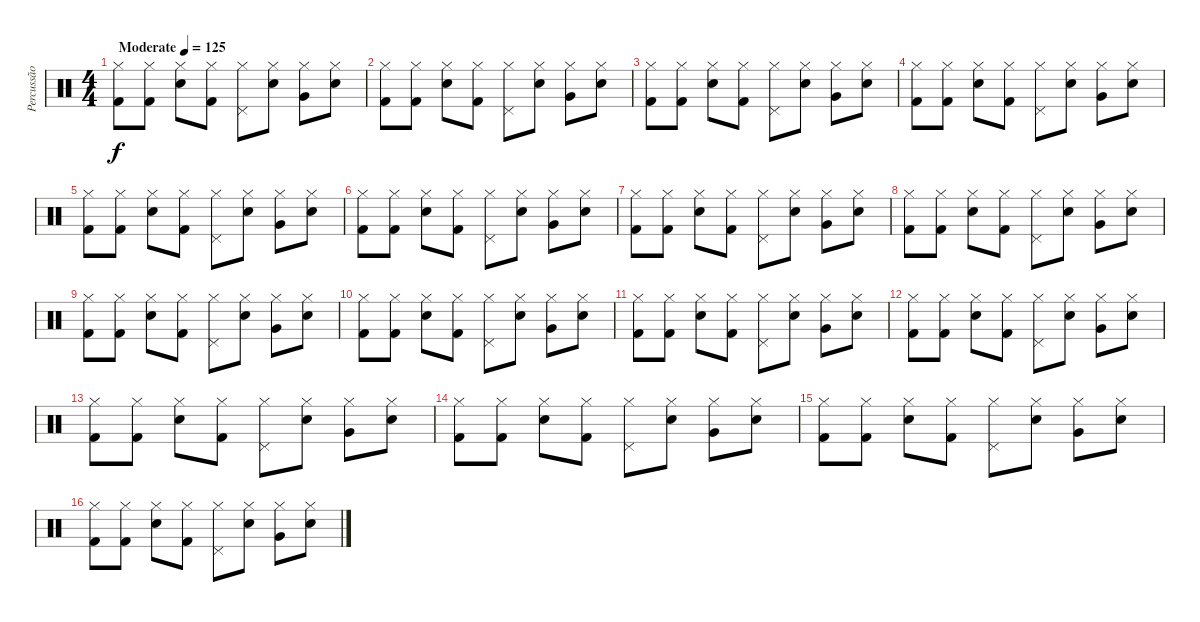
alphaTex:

\track ("Percussão" "Percussão") {instrument percussion}
\staff {score}
\articulation defaults
\ts (4 4)
\tempo (125 "Moderate")
\clef neutral
\ks c
("Hi-Hat (closed)" "Kick (hit) 2").8{dy f} ("Hi-Hat (closed)" "Kick (hit) 2").8 ("Hi-Hat (closed)" "Snare (hit) 2").8 ("Hi-Hat (closed)" "Kick (hit) 2").8 ("Hi-Hat (closed)" "Pedal Hi-Hat (hit)").8 ("Hi-Hat (closed)" "Snare (hit) 2").8 ("Hi-Hat (closed)" "Very Low Tom (hit)").8 ("Hi-Hat (closed)" "Snare (hit) 2").8 |
("Hi-Hat (closed)" "Kick (hit) 2").8 ("Hi-Hat (closed)" "Kick (hit) 2").8 ("Hi-Hat (closed)" "Snare (hit) 2").8 ("Hi-Hat (closed)" "Kick (hit) 2").8 ("Hi-Hat (closed)" "Pedal Hi-Hat (hit)").8 ("Hi-Hat (closed)" "Snare (hit) 2").8 ("Hi-Hat (closed)" "Very Low Tom (hit)").8 ("Hi-Hat (closed)" "Snare (hit) 2").8 |
("Hi-Hat (closed)" "Kick (hit) 2").8 ("Hi-Hat (closed)" "Kick (hit) 2").8 ("Hi-Hat (closed)" "Snare (hit) 2").8 ("Hi-Hat (closed)" "Kick (hit) 2").8 ("Hi-Hat (closed)" "Pedal Hi-Hat (hit)").8 ("Hi-Hat (closed)" "Snare (hit) 2").8 ("Hi-Hat (closed)" "Very Low Tom (hit)").8 ("Hi-Hat (closed)" "Snare (hit) 2").8 |
("Hi-Hat (closed)" "Kick (hit) 2").8 ("Hi-Hat (closed)" "Kick (hit) 2").8 ("Hi-Hat (closed)" "Snare (hit) 2").8 ("Hi-Hat (closed)" "Kick (hit) 2").8 ("Hi-Hat (closed)" "Pedal Hi-Hat (hit)").8 ("Hi-Hat (closed)" "Snare (hit) 2").8 ("Hi-Hat (closed)" "Very Low Tom (hit)").8 ("Hi-Hat (closed)" "Snare (hit) 2").8 |
("Hi-Hat (closed)" "Kick (hit) 2").8 ("Hi-Hat (closed)" "Kick (hit) 2").8 ("Hi-Hat (closed)" "Snare (hit) 2").8 ("Hi-Hat (closed)" "Kick (hit) 2").8 ("Hi-Hat (closed)" "Pedal Hi-Hat (hit)").8 ("Hi-Hat (closed)" "Snare (hit) 2").8 ("Hi-Hat (closed)" "Very Low Tom (hit)").8 ("Hi-Hat (closed)" "Snare (hit) 2").8 |
("Hi-Hat (closed)" "Kick (hit) 2").8 ("Hi-Hat (closed)" "Kick (hit) 2").8 ("Hi-Hat (closed)" "Snare (hit) 2").8 ("Hi-Hat (closed)" "Kick (hit) 2").8 ("Hi-Hat (closed)" "Pedal Hi-Hat (hit)").8 ("Hi-Hat (closed)" "Snare (hit) 2").8 ("Hi-Hat (closed)" "Very Low Tom (hit)").8 ("Hi-Hat (closed)" "Snare (hit) 2").8 |
("Hi-Hat (closed)" "Kick (hit) 2").8 ("Hi-Hat (closed)" "Kick (hit) 2").8 ("Hi-Hat (closed)" "Snare (hit) 2").8 ("Hi-Hat (closed)" "Kick (hit) 2").8 ("Hi-Hat (closed)" "Pedal Hi-Hat (hit)").8 ("Hi-Hat (closed)" "Snare (hit) 2").8 ("Hi-Hat (closed)" "Very Low Tom (hit)").8 ("Hi-Hat (closed)" "Snare (hit) 2").8 |
("Hi-Hat (closed)" "Kick (hit) 2").8 ("Hi-Hat (closed)" "Kick (hit) 2").8 ("Hi-Hat (closed)" "Snare (hit) 2").8 ("Hi-Hat (closed)" "Kick (hit) 2").8 ("Hi-Hat (closed)" "Pedal Hi-Hat (hit)").8 ("Hi-Hat (closed)" "Snare (hit) 2").8 ("Hi-Hat (closed)" "Very Low Tom (hit)").8 ("Hi-Hat (closed)" "Snare (hit) 2").8 |
("Hi-Hat (closed)" "Kick (hit) 2").8 ("Hi-Hat (closed)" "Kick (hit) 2").8 ("Hi-Hat (closed)" "Snare (hit) 2").8 ("Hi-Hat (closed)" "Kick (hit) 2").8 ("Hi-Hat (closed)" "Pedal Hi-Hat (hit)").8 ("Hi-Hat (closed)" "Snare (hit) 2").8 ("Hi-Hat (closed)" "Very Low Tom (hit)").8 ("Hi-Hat (closed)" "Snare (hit) 2").8 |
("Hi-Hat (closed)" "Kick (hit) 2").8 ("Hi-Hat (closed)" "Kick (hit) 2").8 ("Hi-Hat (closed)" "Snare (hit) 2").8 ("Hi-Hat (closed)" "Kick (hit) 2").8 ("Hi-Hat (closed)" "Pedal Hi-Hat (hit)").8 ("Hi-Hat (closed)" "Snare (hit) 2").8 ("Hi-Hat (closed)" "Very Low Tom (hit)").8 ("Hi-Hat (closed)" "Snare (hit) 2").8 |
("Hi-Hat (closed)" "Kick (hit) 2").8 ("Hi-Hat (closed)" "Kick (hit) 2").8 ("Hi-Hat (closed)" "Snare (hit) 2").8 ("Hi-Hat (closed)" "Kick (hit) 2").8 ("Hi-Hat (closed)" "Pedal Hi-Hat (hit)").8 ("Hi-Hat (closed)" "Snare (hit) 2").8 ("Hi-Hat (closed)" "Very Low Tom (hit)").8 ("Hi-Hat (closed)" "Snare (hit) 2").8 |
("Hi-Hat (closed)" "Kick (hit) 2").8 ("Hi-Hat (closed)" "Kick (hit) 2").8 ("Hi-Hat (closed)" "Snare (hit) 2").8 ("Hi-Hat (closed)" "Kick (hit) 2").8 ("Hi-Hat (closed)" "Pedal Hi-Hat (hit)").8 ("Hi-Hat (closed)" "Snare (hit) 2").8 ("Hi-Hat (closed)" "Very Low Tom (hit)").8 ("Hi-Hat (closed)" "Snare (hit) 2").8 |
("Hi-Hat (closed)" "Kick (hit) 2").8 ("Hi-Hat (closed)" "Kick (hit) 2").8 ("Hi-Hat (closed)" "Snare (hit) 2").8 ("Hi-Hat (closed)" "Kick (hit) 2").8 ("Hi-Hat (closed)" "Pedal Hi-Hat (hit)").8 ("Hi-Hat (closed)" "Snare (hit) 2").8 ("Hi-Hat (closed)" "Very Low Tom (hit)").8 ("Hi-Hat (closed)" "Snare (hit) 2").8 |
("Hi-Hat (closed)" "Kick (hit) 2").8 ("Hi-Hat (closed)" "Kick (hit) 2").8 ("Hi-Hat (closed)" "Snare (hit) 2").8 ("Hi-Hat (closed)" "Kick (hit) 2").8 ("Hi-Hat (closed)" "Pedal Hi-Hat (hit)").8 ("Hi-Hat (closed)" "Snare (hit) 2").8 ("Hi-Hat (closed)" "Very Low Tom (hit)").8 ("Hi-Hat (closed)" "Snare (hit) 2").8 |
("Hi-Hat (closed)" "Kick (hit) 2").8 ("Hi-Hat (closed)" "Kick (hit) 2").8 ("Hi-Hat (closed)" "Snare (hit) 2").8 ("Hi-Hat (closed)" "Kick (hit) 2").8 ("Hi-Hat (closed)" "Pedal Hi-Hat (hit)").8 ("Hi-Hat (closed)" "Snare (hit) 2").8 ("Hi-Hat (closed)" "Very Low Tom (hit)").8 ("Hi-Hat (closed)" "Snare (hit) 2").8 |
("Hi-Hat (closed)" "Kick (hit) 2").8 ("Hi-Hat (closed)" "Kick (hit) 2").8 ("Hi-Hat (closed)" "Snare (hit) 2").8 ("Hi-Hat (closed)" "Kick (hit) 2").8 ("Hi-Hat (closed)" "Pedal Hi-Hat (hit)").8 ("Hi-Hat (closed)" "Snare (hit) 2").8 ("Hi-Hat (closed)" "Very Low Tom (hit)").8 ("Hi-Hat (closed)" "Snare (hit) 2").8
